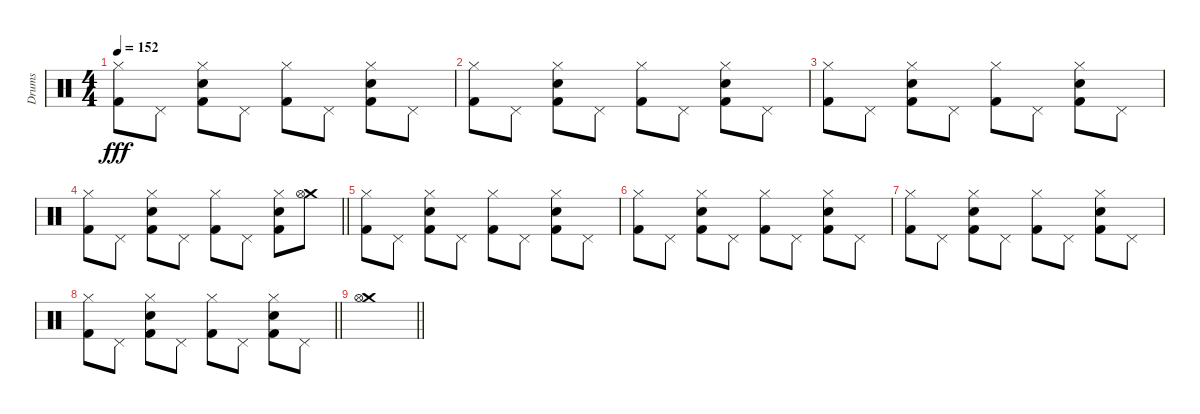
\track ("Drums" "Drums") {instrument percussion}
\staff {score}
\articulation defaults
\ts (4 4)
\tempo 152
\clef neutral
\ks c
("Hi-Hat (closed)" "Kick (hit) 2").8{dy fff} "Pedal Hi-Hat (hit)".8 ("Hi-Hat (closed)" "Electric Snare (hit)" "Kick (hit) 2").8 "Pedal Hi-Hat (hit)".8 ("Hi-Hat (closed)" "Kick (hit) 2").8 "Pedal Hi-Hat (hit)".8 ("Hi-Hat (closed)" "Electric Snare (hit)" "Kick (hit) 2").8 "Pedal Hi-Hat (hit)".8 |
("Hi-Hat (closed)" "Kick (hit) 2").8 "Pedal Hi-Hat (hit)".8 ("Hi-Hat (closed)" "Electric Snare (hit)" "Kick (hit) 2").8 "Pedal Hi-Hat (hit)".8 ("Hi-Hat (closed)" "Kick (hit) 2").8 "Pedal Hi-Hat (hit)".8 ("Hi-Hat (closed)" "Electric Snare (hit)" "Kick (hit) 2").8 "Pedal Hi-Hat (hit)".8 |
("Hi-Hat (closed)" "Kick (hit) 2").8 "Pedal Hi-Hat (hit)".8 ("Hi-Hat (closed)" "Electric Snare (hit)" "Kick (hit) 2").8 "Pedal Hi-Hat (hit)".8 ("Hi-Hat (closed)" "Kick (hit) 2").8 "Pedal Hi-Hat (hit)".8 ("Hi-Hat (closed)" "Electric Snare (hit)" "Kick (hit) 2").8 "Pedal Hi-Hat (hit)".8 |
\barLineRight lightlight
("Hi-Hat (closed)" "Kick (hit) 2").8 "Pedal Hi-Hat (hit)".8 ("Hi-Hat (closed)" "Electric Snare (hit)" "Kick (hit) 2").8 "Pedal Hi-Hat (hit)".8 ("Hi-Hat (closed)" "Kick (hit) 2").8 "Pedal Hi-Hat (hit)".8 ("Hi-Hat (closed)" "Electric Snare (hit)" "Kick (hit) 2").8 ("Crash medium (hit)" "Hi-Hat (open)").8 |
("Hi-Hat (closed)" "Kick (hit) 2").8 "Pedal Hi-Hat (hit)".8 ("Hi-Hat (closed)" "Electric Snare (hit)" "Kick (hit) 2").8 "Pedal Hi-Hat (hit)".8 ("Hi-Hat (closed)" "Kick (hit) 2").8 "Pedal Hi-Hat (hit)".8 ("Hi-Hat (closed)" "Electric Snare (hit)" "Kick (hit) 2").8 "Pedal Hi-Hat (hit)".8 |
("Hi-Hat (closed)" "Kick (hit) 2").8 "Pedal Hi-Hat (hit)".8 ("Hi-Hat (closed)" "Electric Snare (hit)" "Kick (hit) 2").8 "Pedal Hi-Hat (hit)".8 ("Hi-Hat (closed)" "Kick (hit) 2").8 "Pedal Hi-Hat (hit)".8 ("Hi-Hat (closed)" "Electric Snare (hit)" "Kick (hit) 2").8 "Pedal Hi-Hat (hit)".8 |
("Hi-Hat (closed)" "Kick (hit) 2").8 "Pedal Hi-Hat (hit)".8 ("Hi-Hat (closed)" "Electric Snare (hit)" "Kick (hit) 2").8 "Pedal Hi-Hat (hit)".8 ("Hi-Hat (closed)" "Kick (hit) 2").8 "Pedal Hi-Hat (hit)".8 ("Hi-Hat (closed)" "Electric Snare (hit)" "Kick (hit) 2").8 "Pedal Hi-Hat (hit)".8 |
\barLineRight lightlight
("Hi-Hat (closed)" "Kick (hit) 2").8 "Pedal Hi-Hat (hit)".8 ("Hi-Hat (closed)" "Electric Snare (hit)" "Kick (hit) 2").8 "Pedal Hi-Hat (hit)".8 ("Hi-Hat (closed)" "Kick (hit) 2").8 "Pedal Hi-Hat (hit)".8 ("Hi-Hat (closed)" "Electric Snare (hit)" "Kick (hit) 2").8 "Pedal Hi-Hat (hit)".8 |
\barLineRight lightlight
("Crash medium (hit)" "Hi-Hat (open)").1
